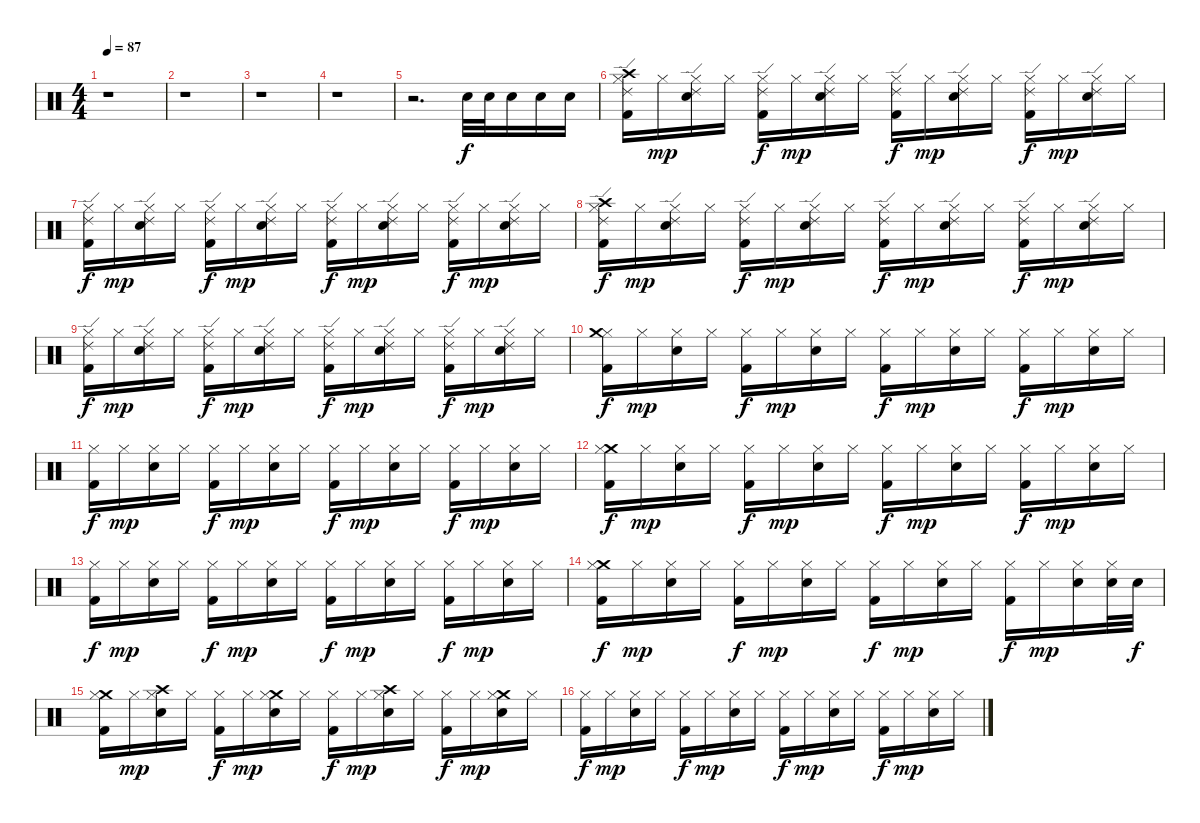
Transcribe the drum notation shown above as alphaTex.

\track "" {instrument percussion}
\staff {score}
\articulation defaults
\ts (4 4)
\tempo 87
\clef neutral
\ks c
r.1{dy f} |
r.1 |
r.1 |
r.1 |
r.2{d} "Electric Snare (hit)".32 "Electric Snare (hit)".32 "Electric Snare (hit)".16 "Electric Snare (hit)".16 "Electric Snare (hit)".16 |
("Hi-Hat (closed)" "Crash high (hit)" "Ride (edge) 2" "Kick (hit) 2").16 "Hi-Hat (closed)".16{dy mp} ("Hi-Hat (closed)" "Ride (edge) 2" "Electric Snare (hit)").16 "Hi-Hat (closed)".16 ("Hi-Hat (closed)" "Ride (edge) 2" "Kick (hit) 2").16{dy f} "Hi-Hat (closed)".16{dy mp} ("Hi-Hat (closed)" "Electric Snare (hit)" "Ride (edge) 2").16 "Hi-Hat (closed)".16 ("Hi-Hat (closed)" "Ride (edge) 2" "Kick (hit) 2").16{dy f} "Hi-Hat (closed)".16{dy mp} ("Hi-Hat (closed)" "Ride (edge) 2" "Electric Snare (hit)").16 "Hi-Hat (closed)".16 ("Hi-Hat (closed)" "Ride (edge) 2" "Kick (hit) 2").16{dy f} "Hi-Hat (closed)".16{dy mp} ("Hi-Hat (closed)" "Ride (edge) 2" "Electric Snare (hit)").16 "Hi-Hat (closed)".16 |
("Hi-Hat (closed)" "Ride (edge) 2" "Kick (hit) 2").16{dy f} "Hi-Hat (closed)".16{dy mp} ("Hi-Hat (closed)" "Ride (edge) 2" "Electric Snare (hit)").16 "Hi-Hat (closed)".16 ("Hi-Hat (closed)" "Ride (edge) 2" "Kick (hit) 2").16{dy f} "Hi-Hat (closed)".16{dy mp} ("Hi-Hat (closed)" "Electric Snare (hit)" "Ride (edge) 2").16 "Hi-Hat (closed)".16 ("Hi-Hat (closed)" "Ride (edge) 2" "Kick (hit) 2").16{dy f} "Hi-Hat (closed)".16{dy mp} ("Hi-Hat (closed)" "Ride (edge) 2" "Electric Snare (hit)").16 "Hi-Hat (closed)".16 ("Hi-Hat (closed)" "Ride (edge) 2" "Kick (hit) 2").16{dy f} "Hi-Hat (closed)".16{dy mp} ("Hi-Hat (closed)" "Ride (edge) 2" "Electric Snare (hit)").16 "Hi-Hat (closed)".16 |
("Hi-Hat (closed)" "Crash high (hit)" "Ride (edge) 2" "Kick (hit) 2").16{dy f} "Hi-Hat (closed)".16{dy mp} ("Hi-Hat (closed)" "Ride (edge) 2" "Electric Snare (hit)").16 "Hi-Hat (closed)".16 ("Hi-Hat (closed)" "Ride (edge) 2" "Kick (hit) 2").16{dy f} "Hi-Hat (closed)".16{dy mp} ("Hi-Hat (closed)" "Electric Snare (hit)" "Ride (edge) 2").16 "Hi-Hat (closed)".16 ("Hi-Hat (closed)" "Ride (edge) 2" "Kick (hit) 2").16{dy f} "Hi-Hat (closed)".16{dy mp} ("Hi-Hat (closed)" "Ride (edge) 2" "Electric Snare (hit)").16 "Hi-Hat (closed)".16 ("Hi-Hat (closed)" "Ride (edge) 2" "Kick (hit) 2").16{dy f} "Hi-Hat (closed)".16{dy mp} ("Hi-Hat (closed)" "Ride (edge) 2" "Electric Snare (hit)").16 "Hi-Hat (closed)".16 |
("Hi-Hat (closed)" "Ride (edge) 2" "Kick (hit) 2").16{dy f} "Hi-Hat (closed)".16{dy mp} ("Hi-Hat (closed)" "Ride (edge) 2" "Electric Snare (hit)").16 "Hi-Hat (closed)".16 ("Hi-Hat (closed)" "Ride (edge) 2" "Kick (hit) 2").16{dy f} "Hi-Hat (closed)".16{dy mp} ("Hi-Hat (closed)" "Electric Snare (hit)" "Ride (edge) 2").16 "Hi-Hat (closed)".16 ("Hi-Hat (closed)" "Ride (edge) 2" "Kick (hit) 2").16{dy f} "Hi-Hat (closed)".16{dy mp} ("Hi-Hat (closed)" "Ride (edge) 2" "Electric Snare (hit)").16 "Hi-Hat (closed)".16 ("Hi-Hat (closed)" "Ride (edge) 2" "Kick (hit) 2").16{dy f} "Hi-Hat (closed)".16{dy mp} ("Hi-Hat (closed)" "Ride (edge) 2" "Electric Snare (hit)").16 "Hi-Hat (closed)".16 |
("Hi-Hat (closed)" "Crash medium (hit)" "Kick (hit) 2").16{dy f} "Hi-Hat (closed)".16{dy mp} ("Hi-Hat (closed)" "Electric Snare (hit)").16 "Hi-Hat (closed)".16 ("Hi-Hat (closed)" "Kick (hit) 2").16{dy f} "Hi-Hat (closed)".16{dy mp} ("Hi-Hat (closed)" "Electric Snare (hit)").16 "Hi-Hat (closed)".16 ("Hi-Hat (closed)" "Kick (hit) 2").16{dy f} "Hi-Hat (closed)".16{dy mp} ("Hi-Hat (closed)" "Electric Snare (hit)").16 "Hi-Hat (closed)".16 ("Hi-Hat (closed)" "Kick (hit) 2").16{dy f} "Hi-Hat (closed)".16{dy mp} ("Hi-Hat (closed)" "Electric Snare (hit)").16 "Hi-Hat (closed)".16 |
("Hi-Hat (closed)" "Kick (hit) 2").16{dy f} "Hi-Hat (closed)".16{dy mp} ("Hi-Hat (closed)" "Electric Snare (hit)").16 "Hi-Hat (closed)".16 ("Hi-Hat (closed)" "Kick (hit) 2").16{dy f} "Hi-Hat (closed)".16{dy mp} ("Hi-Hat (closed)" "Electric Snare (hit)").16 "Hi-Hat (closed)".16 ("Hi-Hat (closed)" "Kick (hit) 2").16{dy f} "Hi-Hat (closed)".16{dy mp} ("Hi-Hat (closed)" "Electric Snare (hit)").16 "Hi-Hat (closed)".16 ("Hi-Hat (closed)" "Kick (hit) 2").16{dy f} "Hi-Hat (closed)".16{dy mp} ("Hi-Hat (closed)" "Electric Snare (hit)").16 "Hi-Hat (closed)".16 |
("Crash medium (hit)" "Hi-Hat (closed)" "Kick (hit) 2").16{dy f} "Hi-Hat (closed)".16{dy mp} ("Hi-Hat (closed)" "Electric Snare (hit)").16 "Hi-Hat (closed)".16 ("Hi-Hat (closed)" "Kick (hit) 2").16{dy f} "Hi-Hat (closed)".16{dy mp} ("Hi-Hat (closed)" "Electric Snare (hit)").16 "Hi-Hat (closed)".16 ("Hi-Hat (closed)" "Kick (hit) 2").16{dy f} "Hi-Hat (closed)".16{dy mp} ("Hi-Hat (closed)" "Electric Snare (hit)").16 "Hi-Hat (closed)".16 ("Hi-Hat (closed)" "Kick (hit) 2").16{dy f} "Hi-Hat (closed)".16{dy mp} ("Hi-Hat (closed)" "Electric Snare (hit)").16 "Hi-Hat (closed)".16 |
("Hi-Hat (closed)" "Kick (hit) 2").16{dy f} "Hi-Hat (closed)".16{dy mp} ("Hi-Hat (closed)" "Electric Snare (hit)").16 "Hi-Hat (closed)".16 ("Hi-Hat (closed)" "Kick (hit) 2").16{dy f} "Hi-Hat (closed)".16{dy mp} ("Hi-Hat (closed)" "Electric Snare (hit)").16 "Hi-Hat (closed)".16 ("Hi-Hat (closed)" "Kick (hit) 2").16{dy f} "Hi-Hat (closed)".16{dy mp} ("Hi-Hat (closed)" "Electric Snare (hit)").16 "Hi-Hat (closed)".16 ("Hi-Hat (closed)" "Kick (hit) 2").16{dy f} "Hi-Hat (closed)".16{dy mp} ("Hi-Hat (closed)" "Electric Snare (hit)").16 "Hi-Hat (closed)".16 |
("Crash medium (hit)" "Hi-Hat (closed)" "Kick (hit) 2").16{dy f} "Hi-Hat (closed)".16{dy mp} ("Hi-Hat (closed)" "Electric Snare (hit)").16 "Hi-Hat (closed)".16 ("Hi-Hat (closed)" "Kick (hit) 2").16{dy f} "Hi-Hat (closed)".16{dy mp} ("Hi-Hat (closed)" "Electric Snare (hit)").16 "Hi-Hat (closed)".16 ("Hi-Hat (closed)" "Kick (hit) 2").16{dy f} "Hi-Hat (closed)".16{dy mp} ("Hi-Hat (closed)" "Electric Snare (hit)").16 "Hi-Hat (closed)".16 ("Hi-Hat (closed)" "Kick (hit) 2").16{dy f} "Hi-Hat (closed)".16{dy mp} ("Electric Snare (hit)" "Hi-Hat (closed)").16 ("Electric Snare (hit)" "Hi-Hat (closed)").32 "Electric Snare (hit)".32{dy f} |
("Crash medium (hit)" "Hi-Hat (closed)" "Kick (hit) 2").16 "Hi-Hat (closed)".16{dy mp} ("Crash high (hit)" "Hi-Hat (closed)" "Electric Snare (hit)").16 "Hi-Hat (closed)".16 ("Hi-Hat (closed)" "Kick (hit) 2").16{dy f} "Hi-Hat (closed)".16{dy mp} ("Crash medium (hit)" "Hi-Hat (closed)" "Electric Snare (hit)").16 "Hi-Hat (closed)".16 ("Hi-Hat (closed)" "Kick (hit) 2").16{dy f} "Hi-Hat (closed)".16{dy mp} ("Crash high (hit)" "Hi-Hat (closed)" "Electric Snare (hit)").16 "Hi-Hat (closed)".16 ("Hi-Hat (closed)" "Kick (hit) 2").16{dy f} "Hi-Hat (closed)".16{dy mp} ("Crash medium (hit)" "Hi-Hat (closed)" "Electric Snare (hit)").16 "Hi-Hat (closed)".16 |
("Hi-Hat (closed)" "Kick (hit) 2").16{dy f} "Hi-Hat (closed)".16{dy mp} ("Hi-Hat (closed)" "Electric Snare (hit)").16 "Hi-Hat (closed)".16 ("Hi-Hat (closed)" "Kick (hit) 2").16{dy f} "Hi-Hat (closed)".16{dy mp} ("Hi-Hat (closed)" "Electric Snare (hit)").16 "Hi-Hat (closed)".16 ("Hi-Hat (closed)" "Kick (hit) 2").16{dy f} "Hi-Hat (closed)".16{dy mp} ("Hi-Hat (closed)" "Electric Snare (hit)").16 "Hi-Hat (closed)".16 ("Hi-Hat (closed)" "Kick (hit) 2").16{dy f} "Hi-Hat (closed)".16{dy mp} ("Hi-Hat (closed)" "Electric Snare (hit)").16 "Hi-Hat (closed)".16
